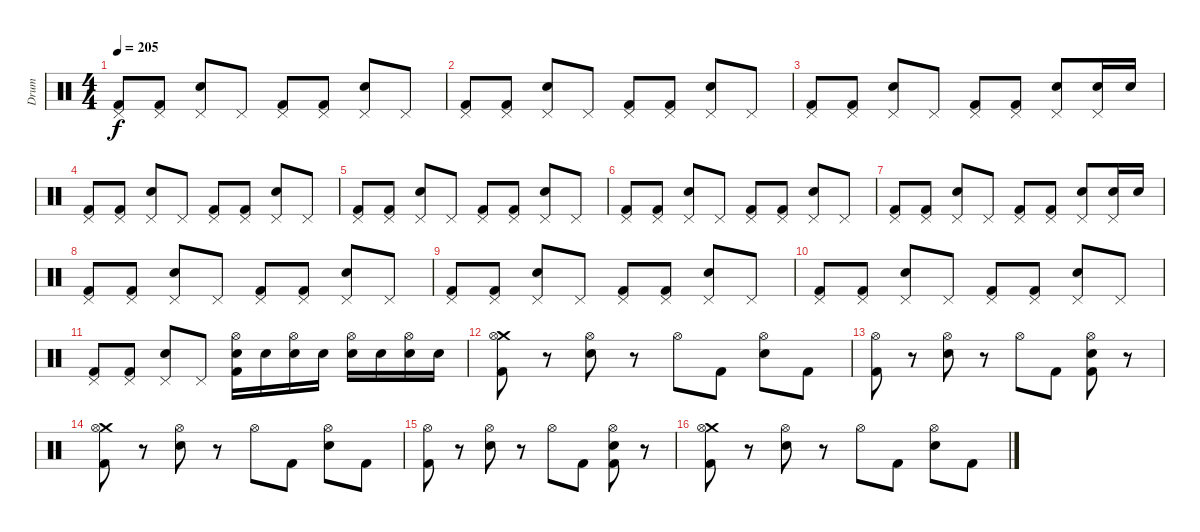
\track ("Drum" "Drum") {instrument percussion}
\staff {score}
\articulation defaults
\ts (4 4)
\tempo 205
\clef neutral
\ks c
("Pedal Hi-Hat (hit)" "Kick (hit) 2").8{dy f} ("Pedal Hi-Hat (hit)" "Kick (hit) 2").8 ("Pedal Hi-Hat (hit)" "Snare (hit) 2").8 "Pedal Hi-Hat (hit)".8 ("Pedal Hi-Hat (hit)" "Kick (hit) 2").8 ("Pedal Hi-Hat (hit)" "Kick (hit) 2").8 ("Pedal Hi-Hat (hit)" "Snare (hit) 2").8 "Pedal Hi-Hat (hit)".8 |
("Pedal Hi-Hat (hit)" "Kick (hit) 2").8 ("Pedal Hi-Hat (hit)" "Kick (hit) 2").8 ("Pedal Hi-Hat (hit)" "Snare (hit) 2").8 "Pedal Hi-Hat (hit)".8 ("Pedal Hi-Hat (hit)" "Kick (hit) 2").8 ("Pedal Hi-Hat (hit)" "Kick (hit) 2").8 ("Pedal Hi-Hat (hit)" "Snare (hit) 2").8 "Pedal Hi-Hat (hit)".8 |
("Pedal Hi-Hat (hit)" "Kick (hit) 2").8 ("Pedal Hi-Hat (hit)" "Kick (hit) 2").8 ("Pedal Hi-Hat (hit)" "Snare (hit) 2").8 "Pedal Hi-Hat (hit)".8 ("Pedal Hi-Hat (hit)" "Kick (hit) 2").8 ("Pedal Hi-Hat (hit)" "Kick (hit) 2").8 ("Pedal Hi-Hat (hit)" "Snare (hit) 2").8 ("Pedal Hi-Hat (hit)" "Snare (hit) 2").16 "Snare (hit) 2".16 |
("Pedal Hi-Hat (hit)" "Kick (hit) 2").8 ("Pedal Hi-Hat (hit)" "Kick (hit) 2").8 ("Pedal Hi-Hat (hit)" "Snare (hit) 2").8 "Pedal Hi-Hat (hit)".8 ("Pedal Hi-Hat (hit)" "Kick (hit) 2").8 ("Pedal Hi-Hat (hit)" "Kick (hit) 2").8 ("Pedal Hi-Hat (hit)" "Snare (hit) 2").8 "Pedal Hi-Hat (hit)".8 |
("Pedal Hi-Hat (hit)" "Kick (hit) 2").8 ("Pedal Hi-Hat (hit)" "Kick (hit) 2").8 ("Pedal Hi-Hat (hit)" "Snare (hit) 2").8 "Pedal Hi-Hat (hit)".8 ("Pedal Hi-Hat (hit)" "Kick (hit) 2").8 ("Pedal Hi-Hat (hit)" "Kick (hit) 2").8 ("Pedal Hi-Hat (hit)" "Snare (hit) 2").8 "Pedal Hi-Hat (hit)".8 |
("Pedal Hi-Hat (hit)" "Kick (hit) 2").8 ("Pedal Hi-Hat (hit)" "Kick (hit) 2").8 ("Pedal Hi-Hat (hit)" "Snare (hit) 2").8 "Pedal Hi-Hat (hit)".8 ("Pedal Hi-Hat (hit)" "Kick (hit) 2").8 ("Pedal Hi-Hat (hit)" "Kick (hit) 2").8 ("Pedal Hi-Hat (hit)" "Snare (hit) 2").8 "Pedal Hi-Hat (hit)".8 |
("Pedal Hi-Hat (hit)" "Kick (hit) 2").8 ("Pedal Hi-Hat (hit)" "Kick (hit) 2").8 ("Pedal Hi-Hat (hit)" "Snare (hit) 2").8 "Pedal Hi-Hat (hit)".8 ("Pedal Hi-Hat (hit)" "Kick (hit) 2").8 ("Pedal Hi-Hat (hit)" "Kick (hit) 2").8 ("Pedal Hi-Hat (hit)" "Snare (hit) 2").8 ("Pedal Hi-Hat (hit)" "Snare (hit) 2").16 "Snare (hit) 2".16 |
("Pedal Hi-Hat (hit)" "Kick (hit) 2").8 ("Pedal Hi-Hat (hit)" "Kick (hit) 2").8 ("Pedal Hi-Hat (hit)" "Snare (hit) 2").8 "Pedal Hi-Hat (hit)".8 ("Pedal Hi-Hat (hit)" "Kick (hit) 2").8 ("Pedal Hi-Hat (hit)" "Kick (hit) 2").8 ("Pedal Hi-Hat (hit)" "Snare (hit) 2").8 "Pedal Hi-Hat (hit)".8 |
("Pedal Hi-Hat (hit)" "Kick (hit) 2").8 ("Pedal Hi-Hat (hit)" "Kick (hit) 2").8 ("Pedal Hi-Hat (hit)" "Snare (hit) 2").8 "Pedal Hi-Hat (hit)".8 ("Pedal Hi-Hat (hit)" "Kick (hit) 2").8 ("Pedal Hi-Hat (hit)" "Kick (hit) 2").8 ("Pedal Hi-Hat (hit)" "Snare (hit) 2").8 "Pedal Hi-Hat (hit)".8 |
("Pedal Hi-Hat (hit)" "Kick (hit) 2").8 ("Pedal Hi-Hat (hit)" "Kick (hit) 2").8 ("Pedal Hi-Hat (hit)" "Snare (hit) 2").8 "Pedal Hi-Hat (hit)".8 ("Pedal Hi-Hat (hit)" "Kick (hit) 2").8 ("Pedal Hi-Hat (hit)" "Kick (hit) 2").8 ("Pedal Hi-Hat (hit)" "Snare (hit) 2").8 "Pedal Hi-Hat (hit)".8 |
("Pedal Hi-Hat (hit)" "Kick (hit) 2").8 ("Pedal Hi-Hat (hit)" "Kick (hit) 2").8 ("Pedal Hi-Hat (hit)" "Snare (hit) 2").8 "Pedal Hi-Hat (hit)".8 ("Hi-Hat (open)" "Snare (hit) 2" "Kick (hit) 2").16 "Snare (hit) 2".16 ("Hi-Hat (open)" "Snare (hit) 2").16 "Snare (hit) 2".16 ("Hi-Hat (open)" "Snare (hit) 2").16 "Snare (hit) 2".16 ("Hi-Hat (open)" "Snare (hit) 2").16 "Snare (hit) 2".16 |
("Crash medium (hit)" "Hi-Hat (open)" "Kick (hit) 2").8 r.8 ("Hi-Hat (open)" "Snare (hit) 2").8 r.8 "Hi-Hat (open)".8 "Kick (hit) 2".8 ("Hi-Hat (open)" "Snare (hit) 2").8 "Kick (hit) 2".8 |
("Hi-Hat (open)" "Kick (hit) 2").8 r.8 ("Hi-Hat (open)" "Snare (hit) 2").8 r.8 "Hi-Hat (open)".8 "Kick (hit) 2".8 ("Hi-Hat (open)" "Snare (hit) 2" "Kick (hit) 2").8 r.8 |
("Crash medium (hit)" "Hi-Hat (open)" "Kick (hit) 2").8 r.8 ("Hi-Hat (open)" "Snare (hit) 2").8 r.8 "Hi-Hat (open)".8 "Kick (hit) 2".8 ("Hi-Hat (open)" "Snare (hit) 2").8 "Kick (hit) 2".8 |
("Hi-Hat (open)" "Kick (hit) 2").8 r.8 ("Hi-Hat (open)" "Snare (hit) 2").8 r.8 "Hi-Hat (open)".8 "Kick (hit) 2".8 ("Hi-Hat (open)" "Snare (hit) 2" "Kick (hit) 2").8 r.8 |
("Crash medium (hit)" "Hi-Hat (open)" "Kick (hit) 2").8 r.8 ("Hi-Hat (open)" "Snare (hit) 2").8 r.8 "Hi-Hat (open)".8 "Kick (hit) 2".8 ("Hi-Hat (open)" "Snare (hit) 2").8 "Kick (hit) 2".8
